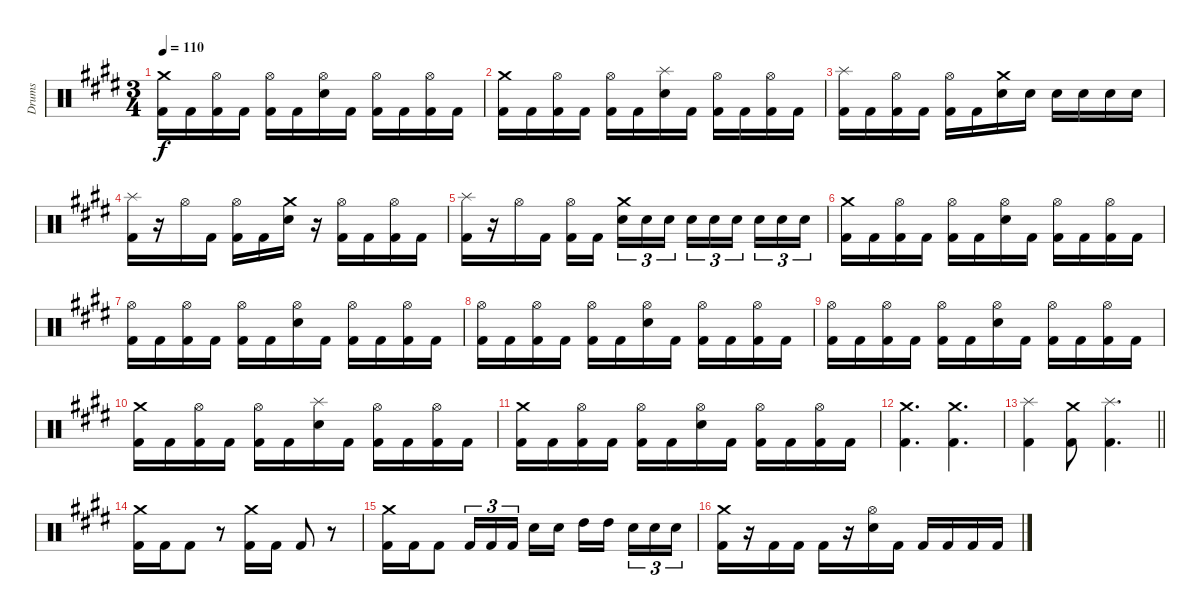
\track ("Drums" "Drums") {instrument percussion}
\staff {score}
\articulation defaults
\ts (3 4)
\tempo 110
\clef neutral
\ks c#minor
("Kick (hit) 2" "Crash medium (hit)").16{dy f} "Kick (hit) 2".16 ("Kick (hit) 2" "Hi-Hat (open)").16 "Kick (hit) 2".16 ("Kick (hit) 2" "Hi-Hat (open)").16 "Kick (hit) 2".16 ("Electric Snare (hit)" "Hi-Hat (open)").16 "Kick (hit) 2".16 ("Kick (hit) 2" "Hi-Hat (open)").16 "Kick (hit) 2".16 ("Kick (hit) 2" "Hi-Hat (open)").16 "Kick (hit) 2".16 |
("Kick (hit) 2" "Crash medium (hit)").16 "Kick (hit) 2".16 ("Kick (hit) 2" "Hi-Hat (open)").16 "Kick (hit) 2".16 ("Kick (hit) 2" "Hi-Hat (open)").16 "Kick (hit) 2".16 ("Electric Snare (hit)" "Splash (hit)").16 "Kick (hit) 2".16 ("Kick (hit) 2" "Hi-Hat (open)").16 "Kick (hit) 2".16 ("Kick (hit) 2" "Hi-Hat (open)").16 "Kick (hit) 2".16 |
("Kick (hit) 2" "Splash (hit)").16 "Kick (hit) 2".16 ("Kick (hit) 2" "Hi-Hat (open)").16 "Kick (hit) 2".16 ("Kick (hit) 2" "Hi-Hat (open)").16 "Kick (hit) 2".16 ("Electric Snare (hit)" "Crash medium (hit)").16 "Electric Snare (hit)".16 "Electric Snare (hit)".16 "Electric Snare (hit)".16 "Electric Snare (hit)".16 "Electric Snare (hit)".16 |
("Kick (hit) 2" "Splash (hit)").16 r.16 "Hi-Hat (open)".16 "Kick (hit) 2".16 ("Kick (hit) 2" "Hi-Hat (open)").16 "Kick (hit) 2".16 ("Electric Snare (hit)" "Crash medium (hit)").16 r.16 ("Kick (hit) 2" "Hi-Hat (open)").16 "Kick (hit) 2".16 ("Kick (hit) 2" "Hi-Hat (open)").16 "Kick (hit) 2".16 |
("Kick (hit) 2" "Splash (hit)").16 r.16 "Hi-Hat (open)".16 "Kick (hit) 2".16 ("Kick (hit) 2" "Hi-Hat (open)").16 "Kick (hit) 2".16{beam splitsecondary} ("Electric Snare (hit)" "Crash medium (hit)").16{tu (3 2)} "Electric Snare (hit)".16{tu (3 2)} "Electric Snare (hit)".16{tu (3 2)} "Electric Snare (hit)".16{tu (3 2)} "Electric Snare (hit)".16{tu (3 2)} "Electric Snare (hit)".16{tu (3 2) beam splitsecondary} "Electric Snare (hit)".16{tu (3 2)} "Electric Snare (hit)".16{tu (3 2)} "Electric Snare (hit)".16{tu (3 2)} |
\ks e
("Kick (hit) 2" "Crash medium (hit)").16 "Kick (hit) 2".16 ("Kick (hit) 2" "Hi-Hat (open)").16 "Kick (hit) 2".16 ("Kick (hit) 2" "Hi-Hat (open)").16 "Kick (hit) 2".16 ("Electric Snare (hit)" "Hi-Hat (open)").16 "Kick (hit) 2".16 ("Kick (hit) 2" "Hi-Hat (open)").16 "Kick (hit) 2".16 ("Kick (hit) 2" "Hi-Hat (open)").16 "Kick (hit) 2".16 |
\ks c#minor
("Kick (hit) 2" "Hi-Hat (open)").16 "Kick (hit) 2".16 ("Kick (hit) 2" "Hi-Hat (open)").16 "Kick (hit) 2".16 ("Kick (hit) 2" "Hi-Hat (open)").16 "Kick (hit) 2".16 ("Electric Snare (hit)" "Hi-Hat (open)").16 "Kick (hit) 2".16 ("Kick (hit) 2" "Hi-Hat (open)").16 "Kick (hit) 2".16 ("Kick (hit) 2" "Hi-Hat (open)").16 "Kick (hit) 2".16 |
("Kick (hit) 2" "Hi-Hat (open)").16 "Kick (hit) 2".16 ("Kick (hit) 2" "Hi-Hat (open)").16 "Kick (hit) 2".16 ("Kick (hit) 2" "Hi-Hat (open)").16 "Kick (hit) 2".16 ("Electric Snare (hit)" "Hi-Hat (open)").16 "Kick (hit) 2".16 ("Kick (hit) 2" "Hi-Hat (open)").16 "Kick (hit) 2".16 ("Kick (hit) 2" "Hi-Hat (open)").16 "Kick (hit) 2".16 |
("Kick (hit) 2" "Hi-Hat (open)").16 "Kick (hit) 2".16 ("Kick (hit) 2" "Hi-Hat (open)").16 "Kick (hit) 2".16 ("Kick (hit) 2" "Hi-Hat (open)").16 "Kick (hit) 2".16 ("Electric Snare (hit)" "Hi-Hat (open)").16 "Kick (hit) 2".16 ("Kick (hit) 2" "Hi-Hat (open)").16 "Kick (hit) 2".16 ("Kick (hit) 2" "Hi-Hat (open)").16 "Kick (hit) 2".16 |
\ks e
("Kick (hit) 2" "Crash medium (hit)").16 "Kick (hit) 2".16 ("Kick (hit) 2" "Hi-Hat (open)").16 "Kick (hit) 2".16 ("Kick (hit) 2" "Hi-Hat (open)").16 "Kick (hit) 2".16 ("Electric Snare (hit)" "Splash (hit)").16 "Kick (hit) 2".16 ("Kick (hit) 2" "Hi-Hat (open)").16 "Kick (hit) 2".16 ("Kick (hit) 2" "Hi-Hat (open)").16 "Kick (hit) 2".16 |
\ks c#minor
("Kick (hit) 2" "Crash medium (hit)").16 "Kick (hit) 2".16 ("Kick (hit) 2" "Hi-Hat (open)").16 "Kick (hit) 2".16 ("Kick (hit) 2" "Hi-Hat (open)").16 "Kick (hit) 2".16 ("Electric Snare (hit)" "Hi-Hat (open)").16 "Kick (hit) 2".16 ("Kick (hit) 2" "Hi-Hat (open)").16 "Kick (hit) 2".16 ("Kick (hit) 2" "Hi-Hat (open)").16 "Kick (hit) 2".16 |
("Kick (hit) 2" "Crash medium (hit)").4{d} ("Kick (hit) 2" "Crash medium (hit)").4{d} |
\barLineRight lightlight
("Kick (hit) 2" "Splash (hit)").4 ("Kick (hit) 2" "Crash medium (hit)").8 ("Kick (hit) 2" "Splash (hit)").4{d} |
("Kick (hit) 2" "Crash medium (hit)").16 "Kick (hit) 2".16 "Kick (hit) 2".8 r.8 ("Kick (hit) 2" "Crash medium (hit)").16 "Kick (hit) 2".16 "Kick (hit) 2".8 r.8 |
("Kick (hit) 2" "Crash medium (hit)").16 "Kick (hit) 2".16 "Kick (hit) 2".8 "Kick (hit) 2".16{tu (3 2)} "Kick (hit) 2".16{tu (3 2)} "Kick (hit) 2".16{tu (3 2) beam splitsecondary} "Electric Snare (hit)".16 "Electric Snare (hit)".16 "High Tom (hit)".16 "High Tom (hit)".16{beam splitsecondary} "Electric Snare (hit)".16{tu (3 2)} "Electric Snare (hit)".16{tu (3 2)} "Electric Snare (hit)".16{tu (3 2)} |
("Kick (hit) 2" "Crash medium (hit)").16 r.16 "Kick (hit) 2".16 "Kick (hit) 2".16 "Kick (hit) 2".16 r.16 ("Electric Snare (hit)" "Hi-Hat (open)").16 "Kick (hit) 2".16 "Kick (hit) 2".16 "Kick (hit) 2".16 "Kick (hit) 2".16 "Kick (hit) 2".16
